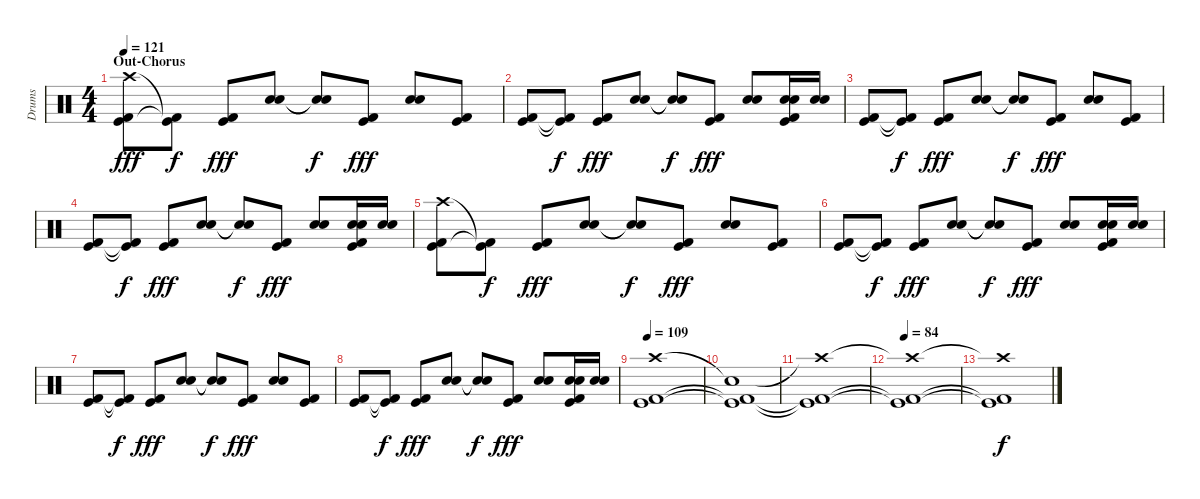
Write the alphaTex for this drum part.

\track ("Drums" "Drums") {instrument percussion}
\staff {score}
\articulation defaults
\ts (4 4)
\section ("" "Out-Chorus")
\tempo 121
\clef neutral
\ks c
("Crash high (hit)" "Kick (hit)" "Kick (hit) 2").8{dy fff} ("Kick (hit)"{t} "Kick (hit) 2"{t}).8{dy f} ("Kick (hit)" "Kick (hit) 2").8{dy fff} ("Electric Snare (hit)" "Electric Snare (hit)").8 ("Electric Snare (hit)"{t} "Electric Snare (hit)"{t}).8{dy f} ("Kick (hit)" "Kick (hit) 2").8{dy fff} ("Electric Snare (hit)" "Electric Snare (hit)").8 ("Kick (hit)" "Kick (hit) 2").8 |
("Kick (hit)" "Kick (hit) 2").8 ("Kick (hit)"{t} "Kick (hit) 2"{t}).8{dy f} ("Kick (hit)" "Kick (hit) 2").8{dy fff} ("Electric Snare (hit)" "Electric Snare (hit)").8 ("Electric Snare (hit)"{t} "Electric Snare (hit)"{t}).8{dy f} ("Kick (hit)" "Kick (hit) 2").8{dy fff} ("Electric Snare (hit)" "Electric Snare (hit)").8 ("Electric Snare (hit)" "Electric Snare (hit)" "Kick (hit)" "Kick (hit) 2").16 ("Electric Snare (hit)" "Electric Snare (hit)").16 |
("Kick (hit)" "Kick (hit) 2").8 ("Kick (hit)"{t} "Kick (hit) 2"{t}).8{dy f} ("Kick (hit)" "Kick (hit) 2").8{dy fff} ("Electric Snare (hit)" "Electric Snare (hit)").8 ("Electric Snare (hit)"{t} "Electric Snare (hit)"{t}).8{dy f} ("Kick (hit)" "Kick (hit) 2").8{dy fff} ("Electric Snare (hit)" "Electric Snare (hit)").8 ("Kick (hit)" "Kick (hit) 2").8 |
("Kick (hit)" "Kick (hit) 2").8 ("Kick (hit)"{t} "Kick (hit) 2"{t}).8{dy f} ("Kick (hit)" "Kick (hit) 2").8{dy fff} ("Electric Snare (hit)" "Electric Snare (hit)").8 ("Electric Snare (hit)"{t} "Electric Snare (hit)"{t}).8{dy f} ("Kick (hit)" "Kick (hit) 2").8{dy fff} ("Electric Snare (hit)" "Electric Snare (hit)").8 ("Electric Snare (hit)" "Electric Snare (hit)" "Kick (hit)" "Kick (hit) 2").16 ("Electric Snare (hit)" "Electric Snare (hit)").16 |
("Crash high (hit)" "Kick (hit)" "Kick (hit) 2").8 ("Kick (hit)"{t} "Kick (hit) 2"{t}).8{dy f} ("Kick (hit)" "Kick (hit) 2").8{dy fff} ("Electric Snare (hit)" "Electric Snare (hit)").8 ("Electric Snare (hit)"{t} "Electric Snare (hit)"{t}).8{dy f} ("Kick (hit)" "Kick (hit) 2").8{dy fff} ("Electric Snare (hit)" "Electric Snare (hit)").8 ("Kick (hit)" "Kick (hit) 2").8 |
("Kick (hit)" "Kick (hit) 2").8 ("Kick (hit)"{t} "Kick (hit) 2"{t}).8{dy f} ("Kick (hit)" "Kick (hit) 2").8{dy fff} ("Electric Snare (hit)" "Electric Snare (hit)").8 ("Electric Snare (hit)"{t} "Electric Snare (hit)"{t}).8{dy f} ("Kick (hit)" "Kick (hit) 2").8{dy fff} ("Electric Snare (hit)" "Electric Snare (hit)").8 ("Electric Snare (hit)" "Electric Snare (hit)" "Kick (hit)" "Kick (hit) 2").16 ("Electric Snare (hit)" "Electric Snare (hit)").16 |
("Kick (hit)" "Kick (hit) 2").8 ("Kick (hit)"{t} "Kick (hit) 2"{t}).8{dy f} ("Kick (hit)" "Kick (hit) 2").8{dy fff} ("Electric Snare (hit)" "Electric Snare (hit)").8 ("Electric Snare (hit)"{t} "Electric Snare (hit)"{t}).8{dy f} ("Kick (hit)" "Kick (hit) 2").8{dy fff} ("Electric Snare (hit)" "Electric Snare (hit)").8 ("Kick (hit)" "Kick (hit) 2").8 |
("Kick (hit)" "Kick (hit) 2").8 ("Kick (hit)"{t} "Kick (hit) 2"{t}).8{dy f} ("Kick (hit)" "Kick (hit) 2").8{dy fff} ("Electric Snare (hit)" "Electric Snare (hit)").8 ("Electric Snare (hit)"{t} "Electric Snare (hit)"{t}).8{dy f} ("Kick (hit)" "Kick (hit) 2").8{dy fff} ("Electric Snare (hit)" "Electric Snare (hit)").8 ("Electric Snare (hit)" "Electric Snare (hit)" "Kick (hit)" "Kick (hit) 2").16 ("Electric Snare (hit)" "Electric Snare (hit)").16 |
\tempo 109
("Crash high (hit)" "Kick (hit)" "Kick (hit) 2").1 |
("Electric Snare (hit)"{t} "Kick (hit)"{t} "Kick (hit) 2"{t}).1 |
("Crash high (hit)"{t} "Kick (hit)"{t} "Kick (hit) 2"{t}).1 |
\tempo 84
("Crash high (hit)"{t} "Kick (hit)"{t} "Kick (hit) 2"{t}).1 |
("Crash high (hit)"{t} "Kick (hit)"{t} "Kick (hit) 2"{t}).1{dy f}
